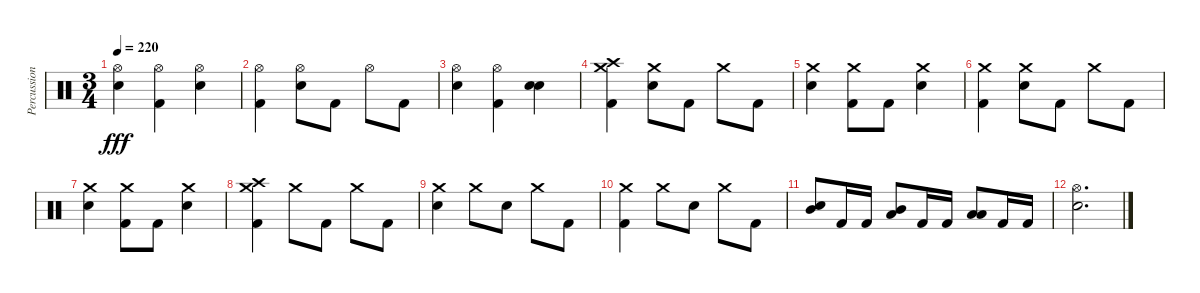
\track ("Percussions" "Percussion") {instrument percussion}
\staff {score}
\articulation defaults
\ts (3 4)
\tempo 220
\clef neutral
\ks c
("Hi-Hat (open)" "Electric Snare (hit)").4{dy fff} ("Hi-Hat (open)" "Kick (hit) 2").4 ("Hi-Hat (open)" "Electric Snare (hit)").4 |
("Hi-Hat (open)" "Kick (hit) 2").4 ("Hi-Hat (open)" "Electric Snare (hit)").8 "Kick (hit) 2".8 "Hi-Hat (open)".8 "Kick (hit) 2".8 |
("Hi-Hat (open)" "Electric Snare (hit)").4 ("Hi-Hat (open)" "Kick (hit) 2").4 ("Electric Snare (hit)" "Electric Snare (hit)").4{bd 240} |
("Crash high (hit)" "Crash medium (hit)" "Kick (hit) 2").4 ("Crash medium (hit)" "Electric Snare (hit)").8 "Kick (hit) 2".8 "Crash medium (hit)".8 "Kick (hit) 2".8 |
("Crash medium (hit)" "Electric Snare (hit)").4 ("Crash medium (hit)" "Kick (hit) 2").8 "Kick (hit) 2".8 ("Crash medium (hit)" "Electric Snare (hit)").4 |
("Crash medium (hit)" "Kick (hit) 2").4 ("Crash medium (hit)" "Electric Snare (hit)").8 "Kick (hit) 2".8 "Crash medium (hit)".8 "Kick (hit) 2".8 |
("Crash medium (hit)" "Electric Snare (hit)").4 ("Crash medium (hit)" "Kick (hit) 2").8 "Kick (hit) 2".8 ("Crash medium (hit)" "Electric Snare (hit)").4 |
("Crash medium (hit)" "Crash high (hit)" "Kick (hit) 2").4 "Crash medium (hit)".8 "Kick (hit) 2".8 "Crash medium (hit)".8 "Kick (hit) 2".8 |
("Crash medium (hit)" "Electric Snare (hit)").4 "Crash medium (hit)".8 "Electric Snare (hit)".8 "Crash medium (hit)".8 "Kick (hit) 2".8 |
("Crash medium (hit)" "Kick (hit) 2").4 "Crash medium (hit)".8 "Electric Snare (hit)".8 "Crash medium (hit)".8 "Kick (hit) 2".8 |
("Mid Tom (hit)" "Electric Snare (hit)").8 "Kick (hit) 2".16 "Kick (hit) 2".16 ("Low Tom (hit)" "Mid Tom (hit)").8 "Kick (hit) 2".16 "Kick (hit) 2".16 ("Low Floor Tom (hit)" "Low Tom (hit)").8 "Kick (hit) 2".16 "Kick (hit) 2".16 |
("Hi-Hat (open)" "Electric Snare (hit)").2{d}
